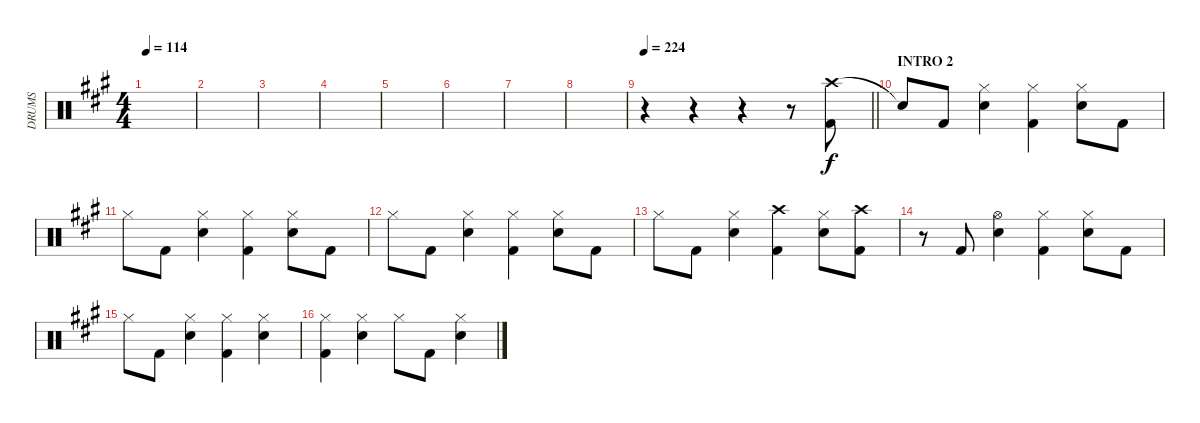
\track ("DRUMS" "DRUMS") {instrument percussion}
\staff {score}
\articulation defaults
\ts (4 4)
\tempo 114
\clef neutral
\ks a
|
|
|
|
|
|
|
|
\tempo 224
\barLineRight lightlight
r.4{volume 12} r.4 r.4 r.8 ("Crash high (hit)" "Kick (hit) 2").8 |
\section ("" "INTRO 2")
"Snare (hit)"{t}.8 "Kick (hit) 2".8 ("Hi-Hat (closed)" "Snare (hit) 2").4 ("Hi-Hat (closed)" "Kick (hit) 2").4 ("Hi-Hat (closed)" "Snare (hit) 2").8 "Kick (hit) 2".8 |
"Hi-Hat (closed)".8 "Kick (hit) 2".8 ("Hi-Hat (closed)" "Snare (hit) 2").4 ("Hi-Hat (closed)" "Kick (hit) 2").4 ("Hi-Hat (closed)" "Snare (hit) 2").8 "Kick (hit) 2".8 |
"Hi-Hat (closed)".8 "Kick (hit) 2".8 ("Hi-Hat (closed)" "Snare (hit) 2").4 ("Hi-Hat (closed)" "Kick (hit) 2").4 ("Hi-Hat (closed)" "Snare (hit) 2").8 "Kick (hit) 2".8 |
"Hi-Hat (closed)".8 "Kick (hit) 2".8 ("Hi-Hat (closed)" "Snare (hit) 2").4 ("Crash high (hit)" "Kick (hit) 2").4 ("Hi-Hat (closed)" "Snare (hit) 2").8 ("Crash high (hit)" "Kick (hit) 2").8 |
r.8 "Kick (hit) 2".8 ("Hi-Hat (open)" "Snare (hit) 2").4 ("Hi-Hat (closed)" "Kick (hit) 2").4 ("Hi-Hat (closed)" "Snare (hit) 2").8 "Kick (hit) 2".8 |
"Hi-Hat (closed)".8 "Kick (hit) 2".8 ("Hi-Hat (closed)" "Snare (hit) 2").4 ("Hi-Hat (closed)" "Kick (hit) 2").4 ("Hi-Hat (closed)" "Snare (hit) 2").4 |
("Hi-Hat (closed)" "Kick (hit) 2").4 ("Hi-Hat (closed)" "Snare (hit) 2").4 "Hi-Hat (closed)".8 "Kick (hit) 2".8 ("Hi-Hat (closed)" "Snare (hit) 2").4
